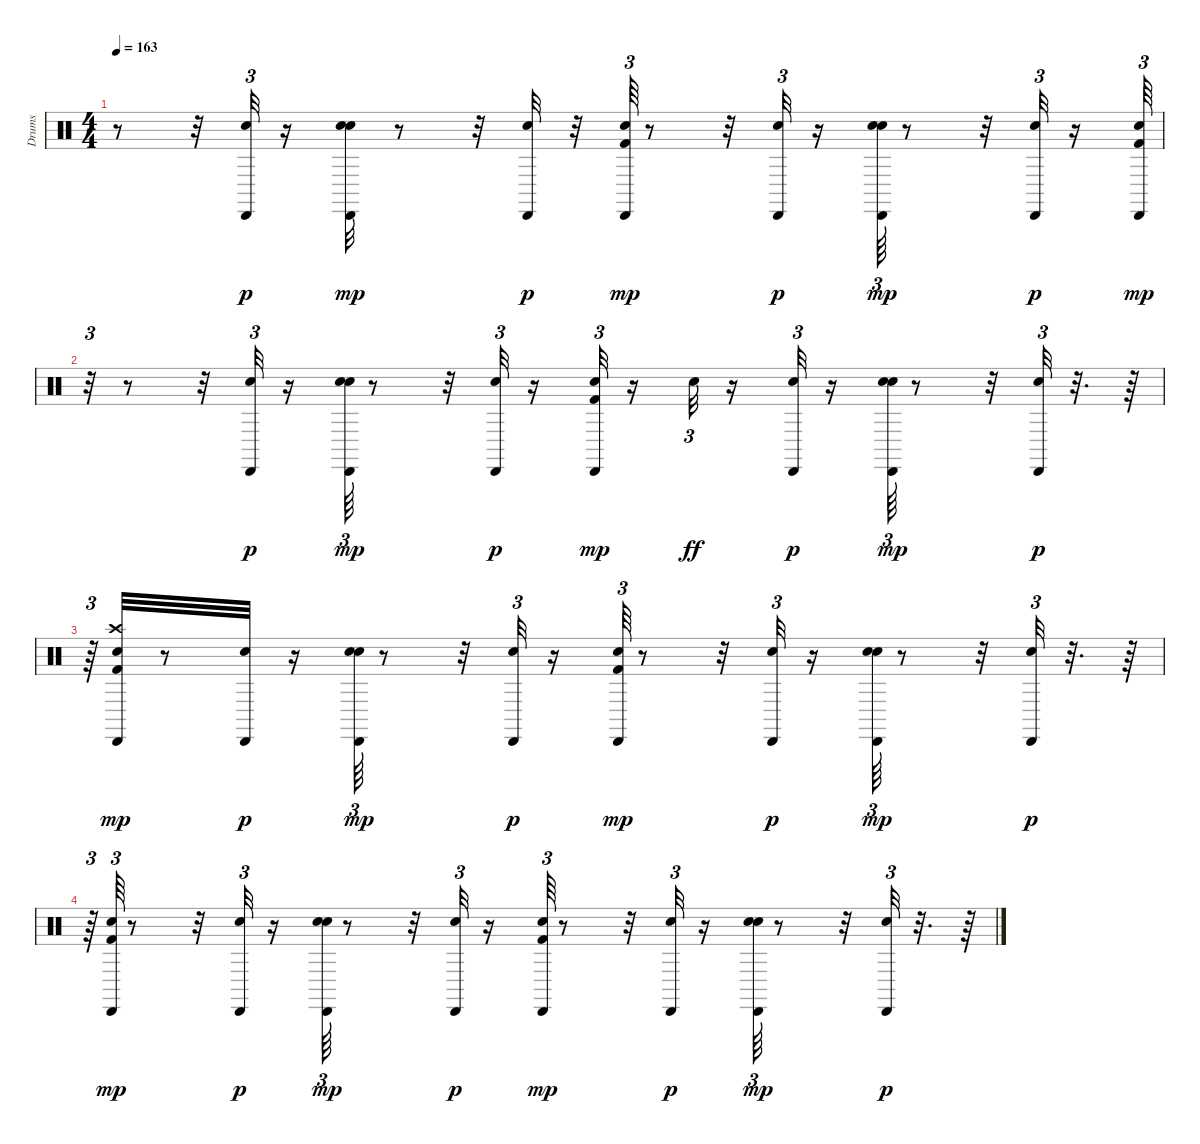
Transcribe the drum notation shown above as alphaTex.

\track ("Drums               " "Drums     ") {instrument percussion}
\staff {score}
\articulation defaults
\ts (4 4)
\tempo 163
\clef neutral
\ks c
r.8{dy mp} r.32 ("Snare (hit) 2" "Cabasa (hit)").32{tu (3 2) dy p} r.16 ("Snare (hit) 2" "Hand Clap (hit)" "Cabasa (hit)").32{dy mp} r.8 r.32 ("Snare (hit) 2" "Cabasa (hit)").32{dy p} r.32 ("Kick (hit) 2" "Snare (hit) 2" "Cabasa (hit)").64{tu (3 2) dy mp} r.8 r.32 ("Snare (hit) 2" "Cabasa (hit)").32{tu (3 2) dy p} r.16 ("Snare (hit) 2" "Hand Clap (hit)" "Cabasa (hit)").64{tu (3 2) dy mp} r.8 r.32 ("Snare (hit) 2" "Cabasa (hit)").32{tu (3 2) dy p} r.16 ("Kick (hit) 2" "Snare (hit) 2" "Cabasa (hit)").64{tu (3 2) dy mp} |
r.32{tu (3 2)} r.8 r.32 ("Snare (hit) 2" "Cabasa (hit)").32{tu (3 2) dy p} r.16 ("Snare (hit) 2" "Hand Clap (hit)" "Cabasa (hit)").64{tu (3 2) dy mp} r.8 r.32 ("Snare (hit) 2" "Cabasa (hit)").32{tu (3 2) dy p} r.16 ("Kick (hit) 2" "Snare (hit) 2" "Cabasa (hit)").32{tu (3 2) dy mp} r.16 "Snare (hit) 2".32{tu (3 2) dy ff} r.16 ("Snare (hit) 2" "Cabasa (hit)").32{tu (3 2) dy p} r.16 ("Snare (hit) 2" "Hand Clap (hit)" "Cabasa (hit)").64{tu (3 2) dy mp} r.8 r.32 ("Snare (hit) 2" "Cabasa (hit)").32{tu (3 2) dy p} r.32{d} r.64 |
r.64{tu (3 2)} ("Kick (hit) 2" "Snare (hit) 2" "Crash high (hit)" "Cabasa (hit)").32{dy mp} r.8 ("Snare (hit) 2" "Cabasa (hit)").32{dy p} r.16 ("Snare (hit) 2" "Hand Clap (hit)" "Cabasa (hit)").64{tu (3 2) dy mp} r.8 r.32 ("Snare (hit) 2" "Cabasa (hit)").32{tu (3 2) dy p} r.16 ("Kick (hit) 2" "Snare (hit) 2" "Cabasa (hit)").64{tu (3 2) dy mp} r.8 r.32 ("Snare (hit) 2" "Cabasa (hit)").32{tu (3 2) dy p} r.16 ("Snare (hit) 2" "Hand Clap (hit)" "Cabasa (hit)").64{tu (3 2) dy mp} r.8 r.32 ("Snare (hit) 2" "Cabasa (hit)").32{tu (3 2) dy p} r.32{d} r.64 |
r.64{tu (3 2)} ("Kick (hit) 2" "Snare (hit) 2" "Cabasa (hit)").64{tu (3 2) dy mp} r.8 r.32 ("Snare (hit) 2" "Cabasa (hit)").32{tu (3 2) dy p} r.16 ("Snare (hit) 2" "Hand Clap (hit)" "Cabasa (hit)").64{tu (3 2) dy mp} r.8 r.32 ("Snare (hit) 2" "Cabasa (hit)").32{tu (3 2) dy p} r.16 ("Kick (hit) 2" "Snare (hit) 2" "Cabasa (hit)").64{tu (3 2) dy mp} r.8 r.32 ("Snare (hit) 2" "Cabasa (hit)").32{tu (3 2) dy p} r.16 ("Snare (hit) 2" "Hand Clap (hit)" "Cabasa (hit)").64{tu (3 2) dy mp} r.8 r.32 ("Snare (hit) 2" "Cabasa (hit)").32{tu (3 2) dy p} r.32{d} r.64
